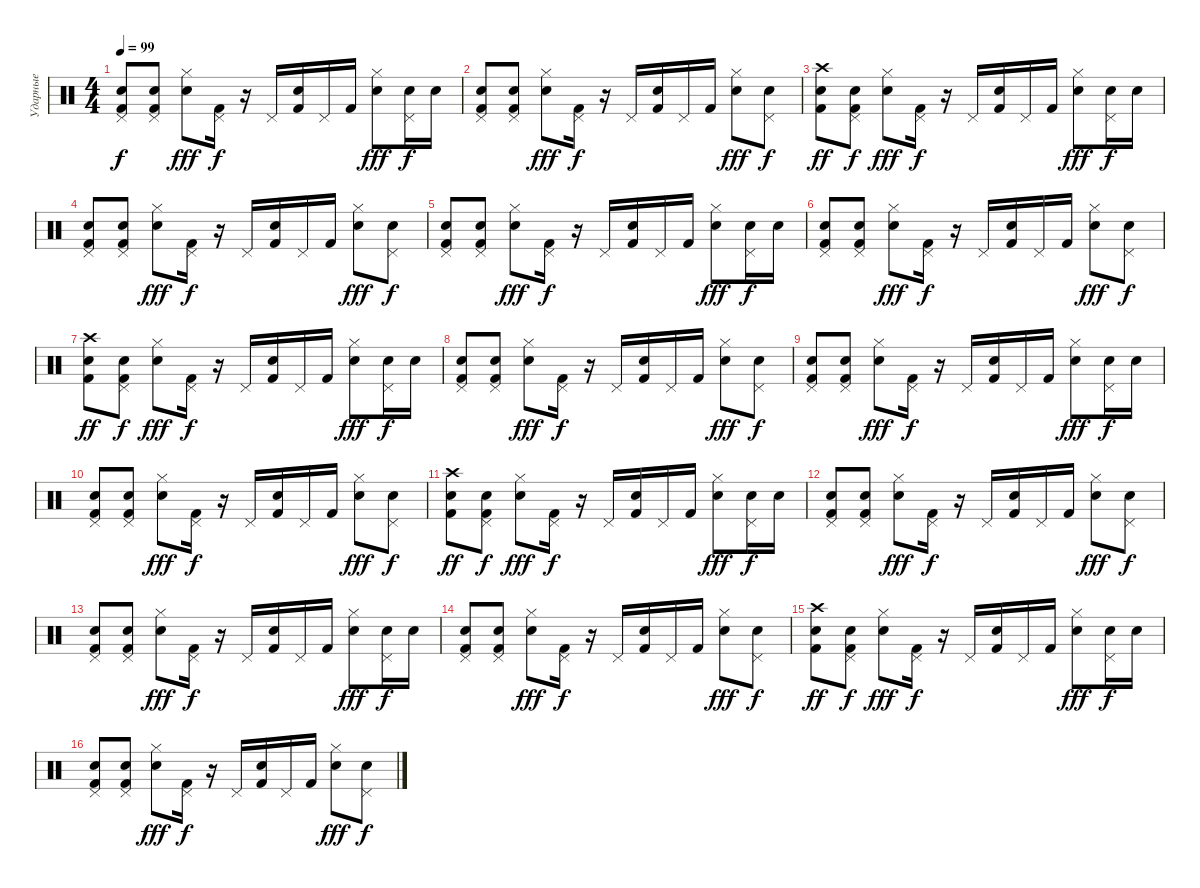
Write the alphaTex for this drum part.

\track ("Ударные" "Ударные") {instrument percussion}
\staff {score}
\articulation defaults
\ts (4 4)
\tempo 99
\clef neutral
\ks c
("Pedal Hi-Hat (hit)" "Snare (hit) 2" "Kick (hit) 2").8{dy f} ("Pedal Hi-Hat (hit)" "Snare (hit) 2" "Kick (hit) 2").8 ("Hi-Hat (closed)" "Snare (hit) 2").8{dy fff} ("Pedal Hi-Hat (hit)" "Kick (hit) 2").16{dy f} r.16 "Pedal Hi-Hat (hit)".16 ("Snare (hit) 2" "Kick (hit) 2").16 "Pedal Hi-Hat (hit)".16 "Kick (hit) 2".16 ("Hi-Hat (closed)" "Snare (hit) 2").8{dy fff} ("Pedal Hi-Hat (hit)" "Snare (hit) 2").16{dy f} "Snare (hit) 2".16 |
("Pedal Hi-Hat (hit)" "Snare (hit) 2" "Kick (hit) 2").8 ("Pedal Hi-Hat (hit)" "Snare (hit) 2" "Kick (hit) 2").8 ("Hi-Hat (closed)" "Snare (hit) 2").8{dy fff} ("Pedal Hi-Hat (hit)" "Kick (hit) 2").16{dy f} r.16 "Pedal Hi-Hat (hit)".16 ("Snare (hit) 2" "Kick (hit) 2").16 "Pedal Hi-Hat (hit)".16 "Kick (hit) 2".16 ("Hi-Hat (closed)" "Snare (hit) 2").8{dy fff} ("Pedal Hi-Hat (hit)" "Snare (hit) 2").8{dy f} |
("Crash high (hit)" "Snare (hit) 2" "Kick (hit) 2").8{dy ff} ("Pedal Hi-Hat (hit)" "Snare (hit) 2" "Kick (hit) 2").8{dy f} ("Hi-Hat (closed)" "Snare (hit) 2").8{dy fff} ("Pedal Hi-Hat (hit)" "Kick (hit) 2").16{dy f} r.16 "Pedal Hi-Hat (hit)".16 ("Snare (hit) 2" "Kick (hit) 2").16 "Pedal Hi-Hat (hit)".16 "Kick (hit) 2".16 ("Hi-Hat (closed)" "Snare (hit) 2").8{dy fff} ("Pedal Hi-Hat (hit)" "Snare (hit) 2").16{dy f} "Snare (hit) 2".16 |
("Pedal Hi-Hat (hit)" "Snare (hit) 2" "Kick (hit) 2").8 ("Pedal Hi-Hat (hit)" "Snare (hit) 2" "Kick (hit) 2").8 ("Hi-Hat (closed)" "Snare (hit) 2").8{dy fff} ("Pedal Hi-Hat (hit)" "Kick (hit) 2").16{dy f} r.16 "Pedal Hi-Hat (hit)".16 ("Snare (hit) 2" "Kick (hit) 2").16 "Pedal Hi-Hat (hit)".16 "Kick (hit) 2".16 ("Hi-Hat (closed)" "Snare (hit) 2").8{dy fff} ("Pedal Hi-Hat (hit)" "Snare (hit) 2").8{dy f} |
("Pedal Hi-Hat (hit)" "Snare (hit) 2" "Kick (hit) 2").8 ("Pedal Hi-Hat (hit)" "Snare (hit) 2" "Kick (hit) 2").8 ("Hi-Hat (closed)" "Snare (hit) 2").8{dy fff} ("Pedal Hi-Hat (hit)" "Kick (hit) 2").16{dy f} r.16 "Pedal Hi-Hat (hit)".16 ("Snare (hit) 2" "Kick (hit) 2").16 "Pedal Hi-Hat (hit)".16 "Kick (hit) 2".16 ("Hi-Hat (closed)" "Snare (hit) 2").8{dy fff} ("Pedal Hi-Hat (hit)" "Snare (hit) 2").16{dy f} "Snare (hit) 2".16 |
("Pedal Hi-Hat (hit)" "Snare (hit) 2" "Kick (hit) 2").8 ("Pedal Hi-Hat (hit)" "Snare (hit) 2" "Kick (hit) 2").8 ("Hi-Hat (closed)" "Snare (hit) 2").8{dy fff} ("Pedal Hi-Hat (hit)" "Kick (hit) 2").16{dy f} r.16 "Pedal Hi-Hat (hit)".16 ("Snare (hit) 2" "Kick (hit) 2").16 "Pedal Hi-Hat (hit)".16 "Kick (hit) 2".16 ("Hi-Hat (closed)" "Snare (hit) 2").8{dy fff} ("Pedal Hi-Hat (hit)" "Snare (hit) 2").8{dy f} |
("Crash high (hit)" "Snare (hit) 2" "Kick (hit) 2").8{dy ff} ("Pedal Hi-Hat (hit)" "Snare (hit) 2" "Kick (hit) 2").8{dy f} ("Hi-Hat (closed)" "Snare (hit) 2").8{dy fff} ("Pedal Hi-Hat (hit)" "Kick (hit) 2").16{dy f} r.16 "Pedal Hi-Hat (hit)".16 ("Snare (hit) 2" "Kick (hit) 2").16 "Pedal Hi-Hat (hit)".16 "Kick (hit) 2".16 ("Hi-Hat (closed)" "Snare (hit) 2").8{dy fff} ("Pedal Hi-Hat (hit)" "Snare (hit) 2").16{dy f} "Snare (hit) 2".16 |
("Pedal Hi-Hat (hit)" "Snare (hit) 2" "Kick (hit) 2").8 ("Pedal Hi-Hat (hit)" "Snare (hit) 2" "Kick (hit) 2").8 ("Hi-Hat (closed)" "Snare (hit) 2").8{dy fff} ("Pedal Hi-Hat (hit)" "Kick (hit) 2").16{dy f} r.16 "Pedal Hi-Hat (hit)".16 ("Snare (hit) 2" "Kick (hit) 2").16 "Pedal Hi-Hat (hit)".16 "Kick (hit) 2".16 ("Hi-Hat (closed)" "Snare (hit) 2").8{dy fff} ("Pedal Hi-Hat (hit)" "Snare (hit) 2").8{dy f} |
("Pedal Hi-Hat (hit)" "Snare (hit) 2" "Kick (hit) 2").8 ("Pedal Hi-Hat (hit)" "Snare (hit) 2" "Kick (hit) 2").8 ("Hi-Hat (closed)" "Snare (hit) 2").8{dy fff} ("Pedal Hi-Hat (hit)" "Kick (hit) 2").16{dy f} r.16 "Pedal Hi-Hat (hit)".16 ("Snare (hit) 2" "Kick (hit) 2").16 "Pedal Hi-Hat (hit)".16 "Kick (hit) 2".16 ("Hi-Hat (closed)" "Snare (hit) 2").8{dy fff} ("Pedal Hi-Hat (hit)" "Snare (hit) 2").16{dy f} "Snare (hit) 2".16 |
("Pedal Hi-Hat (hit)" "Snare (hit) 2" "Kick (hit) 2").8 ("Pedal Hi-Hat (hit)" "Snare (hit) 2" "Kick (hit) 2").8 ("Hi-Hat (closed)" "Snare (hit) 2").8{dy fff} ("Pedal Hi-Hat (hit)" "Kick (hit) 2").16{dy f} r.16 "Pedal Hi-Hat (hit)".16 ("Snare (hit) 2" "Kick (hit) 2").16 "Pedal Hi-Hat (hit)".16 "Kick (hit) 2".16 ("Hi-Hat (closed)" "Snare (hit) 2").8{dy fff} ("Pedal Hi-Hat (hit)" "Snare (hit) 2").8{dy f} |
("Crash high (hit)" "Snare (hit) 2" "Kick (hit) 2").8{dy ff} ("Pedal Hi-Hat (hit)" "Snare (hit) 2" "Kick (hit) 2").8{dy f} ("Hi-Hat (closed)" "Snare (hit) 2").8{dy fff} ("Pedal Hi-Hat (hit)" "Kick (hit) 2").16{dy f} r.16 "Pedal Hi-Hat (hit)".16 ("Snare (hit) 2" "Kick (hit) 2").16 "Pedal Hi-Hat (hit)".16 "Kick (hit) 2".16 ("Hi-Hat (closed)" "Snare (hit) 2").8{dy fff} ("Pedal Hi-Hat (hit)" "Snare (hit) 2").16{dy f} "Snare (hit) 2".16 |
("Pedal Hi-Hat (hit)" "Snare (hit) 2" "Kick (hit) 2").8 ("Pedal Hi-Hat (hit)" "Snare (hit) 2" "Kick (hit) 2").8 ("Hi-Hat (closed)" "Snare (hit) 2").8{dy fff} ("Pedal Hi-Hat (hit)" "Kick (hit) 2").16{dy f} r.16 "Pedal Hi-Hat (hit)".16 ("Snare (hit) 2" "Kick (hit) 2").16 "Pedal Hi-Hat (hit)".16 "Kick (hit) 2".16 ("Hi-Hat (closed)" "Snare (hit) 2").8{dy fff} ("Pedal Hi-Hat (hit)" "Snare (hit) 2").8{dy f} |
("Pedal Hi-Hat (hit)" "Snare (hit) 2" "Kick (hit) 2").8 ("Pedal Hi-Hat (hit)" "Snare (hit) 2" "Kick (hit) 2").8 ("Hi-Hat (closed)" "Snare (hit) 2").8{dy fff} ("Pedal Hi-Hat (hit)" "Kick (hit) 2").16{dy f} r.16 "Pedal Hi-Hat (hit)".16 ("Snare (hit) 2" "Kick (hit) 2").16 "Pedal Hi-Hat (hit)".16 "Kick (hit) 2".16 ("Hi-Hat (closed)" "Snare (hit) 2").8{dy fff} ("Pedal Hi-Hat (hit)" "Snare (hit) 2").16{dy f} "Snare (hit) 2".16 |
("Pedal Hi-Hat (hit)" "Snare (hit) 2" "Kick (hit) 2").8 ("Pedal Hi-Hat (hit)" "Snare (hit) 2" "Kick (hit) 2").8 ("Hi-Hat (closed)" "Snare (hit) 2").8{dy fff} ("Pedal Hi-Hat (hit)" "Kick (hit) 2").16{dy f} r.16 "Pedal Hi-Hat (hit)".16 ("Snare (hit) 2" "Kick (hit) 2").16 "Pedal Hi-Hat (hit)".16 "Kick (hit) 2".16 ("Hi-Hat (closed)" "Snare (hit) 2").8{dy fff} ("Pedal Hi-Hat (hit)" "Snare (hit) 2").8{dy f} |
("Crash high (hit)" "Snare (hit) 2" "Kick (hit) 2").8{dy ff} ("Pedal Hi-Hat (hit)" "Snare (hit) 2" "Kick (hit) 2").8{dy f} ("Hi-Hat (closed)" "Snare (hit) 2").8{dy fff} ("Pedal Hi-Hat (hit)" "Kick (hit) 2").16{dy f} r.16 "Pedal Hi-Hat (hit)".16 ("Snare (hit) 2" "Kick (hit) 2").16 "Pedal Hi-Hat (hit)".16 "Kick (hit) 2".16 ("Hi-Hat (closed)" "Snare (hit) 2").8{dy fff} ("Pedal Hi-Hat (hit)" "Snare (hit) 2").16{dy f} "Snare (hit) 2".16 |
("Pedal Hi-Hat (hit)" "Snare (hit) 2" "Kick (hit) 2").8 ("Pedal Hi-Hat (hit)" "Snare (hit) 2" "Kick (hit) 2").8 ("Hi-Hat (closed)" "Snare (hit) 2").8{dy fff} ("Pedal Hi-Hat (hit)" "Kick (hit) 2").16{dy f} r.16 "Pedal Hi-Hat (hit)".16 ("Snare (hit) 2" "Kick (hit) 2").16 "Pedal Hi-Hat (hit)".16 "Kick (hit) 2".16 ("Hi-Hat (closed)" "Snare (hit) 2").8{dy fff} ("Pedal Hi-Hat (hit)" "Snare (hit) 2").8{dy f}
